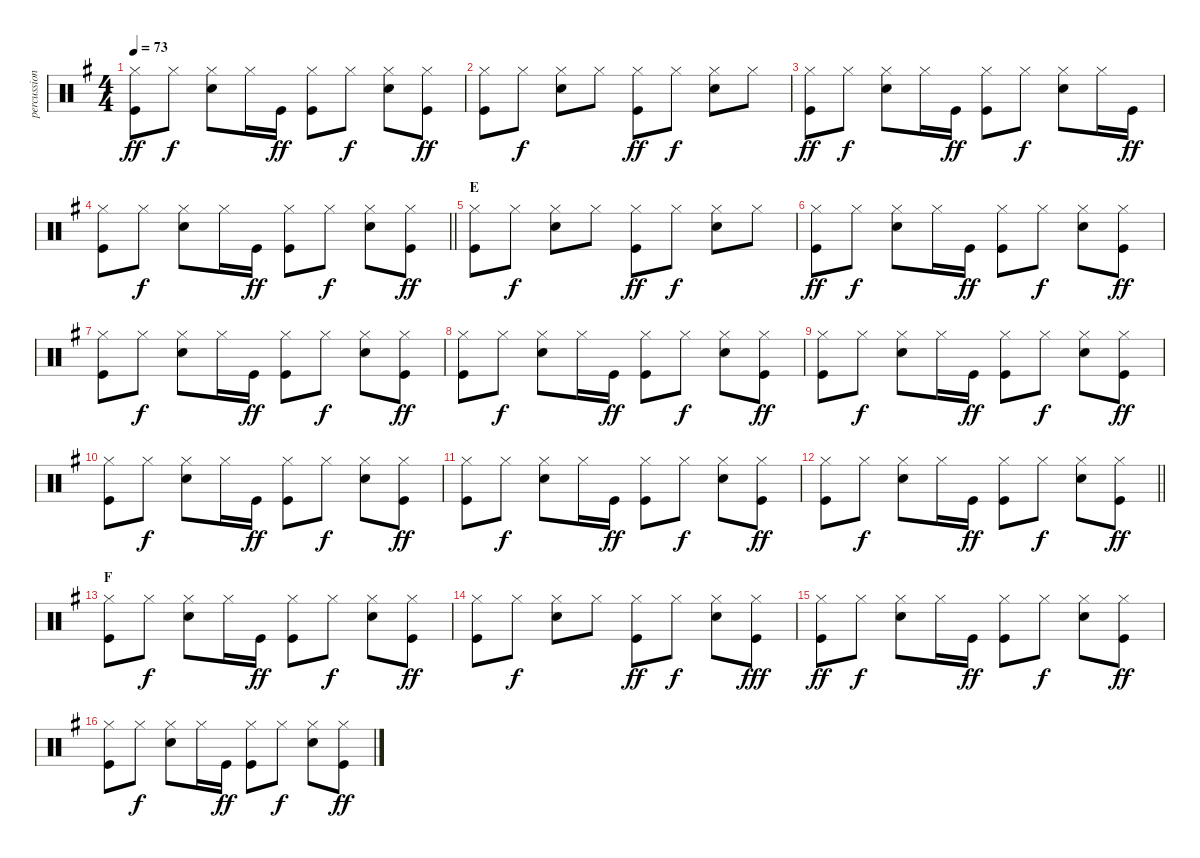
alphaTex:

\track ("percussion" "percussion") {instrument percussion}
\staff {score}
\articulation defaults
\ts (4 4)
\tempo 73
\clef neutral
\ks g
("Hi-Hat (closed)" "Kick (hit)").8{dy ff} "Hi-Hat (closed)".8{dy f} ("Electric Snare (hit)" "Hi-Hat (closed)").8 "Hi-Hat (closed)".16 "Kick (hit)".16{dy ff} ("Hi-Hat (closed)" "Kick (hit)").8 "Hi-Hat (closed)".8{dy f} ("Electric Snare (hit)" "Hi-Hat (closed)").8 ("Hi-Hat (closed)" "Kick (hit)").8{dy ff} |
("Hi-Hat (closed)" "Kick (hit)").8 "Hi-Hat (closed)".8{dy f} ("Electric Snare (hit)" "Hi-Hat (closed)").8 "Hi-Hat (closed)".8 ("Hi-Hat (closed)" "Kick (hit)").8{dy ff} "Hi-Hat (closed)".8{dy f} ("Electric Snare (hit)" "Hi-Hat (closed)").8 "Hi-Hat (closed)".8 |
("Hi-Hat (closed)" "Kick (hit)").8{dy ff} "Hi-Hat (closed)".8{dy f} ("Electric Snare (hit)" "Hi-Hat (closed)").8 "Hi-Hat (closed)".16 "Kick (hit)".16{dy ff} ("Hi-Hat (closed)" "Kick (hit)").8 "Hi-Hat (closed)".8{dy f} ("Electric Snare (hit)" "Hi-Hat (closed)").8 "Hi-Hat (closed)".16 "Kick (hit)".16{dy ff} |
\barLineRight lightlight
("Hi-Hat (closed)" "Kick (hit)").8 "Hi-Hat (closed)".8{dy f} ("Electric Snare (hit)" "Hi-Hat (closed)").8 "Hi-Hat (closed)".16 "Kick (hit)".16{dy ff} ("Hi-Hat (closed)" "Kick (hit)").8 "Hi-Hat (closed)".8{dy f} ("Electric Snare (hit)" "Hi-Hat (closed)").8 ("Hi-Hat (closed)" "Kick (hit)").8{dy ff} |
\section ("" "E")
("Hi-Hat (closed)" "Kick (hit)").8 "Hi-Hat (closed)".8{dy f} ("Electric Snare (hit)" "Hi-Hat (closed)").8 "Hi-Hat (closed)".8 ("Hi-Hat (closed)" "Kick (hit)").8{dy ff} "Hi-Hat (closed)".8{dy f} ("Electric Snare (hit)" "Hi-Hat (closed)").8 "Hi-Hat (closed)".8 |
("Hi-Hat (closed)" "Kick (hit)").8{dy ff} "Hi-Hat (closed)".8{dy f} ("Electric Snare (hit)" "Hi-Hat (closed)").8 "Hi-Hat (closed)".16 "Kick (hit)".16{dy ff} ("Hi-Hat (closed)" "Kick (hit)").8 "Hi-Hat (closed)".8{dy f} ("Electric Snare (hit)" "Hi-Hat (closed)").8 ("Hi-Hat (closed)" "Kick (hit)").8{dy ff} |
("Hi-Hat (closed)" "Kick (hit)").8 "Hi-Hat (closed)".8{dy f} ("Electric Snare (hit)" "Hi-Hat (closed)").8 "Hi-Hat (closed)".16 "Kick (hit)".16{dy ff} ("Hi-Hat (closed)" "Kick (hit)").8 "Hi-Hat (closed)".8{dy f} ("Electric Snare (hit)" "Hi-Hat (closed)").8 ("Hi-Hat (closed)" "Kick (hit)").8{dy ff} |
("Hi-Hat (closed)" "Kick (hit)").8 "Hi-Hat (closed)".8{dy f} ("Electric Snare (hit)" "Hi-Hat (closed)").8 "Hi-Hat (closed)".16 "Kick (hit)".16{dy ff} ("Hi-Hat (closed)" "Kick (hit)").8 "Hi-Hat (closed)".8{dy f} ("Electric Snare (hit)" "Hi-Hat (closed)").8 ("Hi-Hat (closed)" "Kick (hit)").8{dy ff} |
("Hi-Hat (closed)" "Kick (hit)").8 "Hi-Hat (closed)".8{dy f} ("Electric Snare (hit)" "Hi-Hat (closed)").8 "Hi-Hat (closed)".16 "Kick (hit)".16{dy ff} ("Hi-Hat (closed)" "Kick (hit)").8 "Hi-Hat (closed)".8{dy f} ("Electric Snare (hit)" "Hi-Hat (closed)").8 ("Hi-Hat (closed)" "Kick (hit)").8{dy ff} |
("Hi-Hat (closed)" "Kick (hit)").8 "Hi-Hat (closed)".8{dy f} ("Electric Snare (hit)" "Hi-Hat (closed)").8 "Hi-Hat (closed)".16 "Kick (hit)".16{dy ff} ("Hi-Hat (closed)" "Kick (hit)").8 "Hi-Hat (closed)".8{dy f} ("Electric Snare (hit)" "Hi-Hat (closed)").8 ("Hi-Hat (closed)" "Kick (hit)").8{dy ff} |
("Hi-Hat (closed)" "Kick (hit)").8 "Hi-Hat (closed)".8{dy f} ("Electric Snare (hit)" "Hi-Hat (closed)").8 "Hi-Hat (closed)".16 "Kick (hit)".16{dy ff} ("Hi-Hat (closed)" "Kick (hit)").8 "Hi-Hat (closed)".8{dy f} ("Electric Snare (hit)" "Hi-Hat (closed)").8 ("Hi-Hat (closed)" "Kick (hit)").8{dy ff} |
\barLineRight lightlight
("Hi-Hat (closed)" "Kick (hit)").8 "Hi-Hat (closed)".8{dy f} ("Electric Snare (hit)" "Hi-Hat (closed)").8 "Hi-Hat (closed)".16 "Kick (hit)".16{dy ff} ("Hi-Hat (closed)" "Kick (hit)").8 "Hi-Hat (closed)".8{dy f} ("Electric Snare (hit)" "Hi-Hat (closed)").8 ("Hi-Hat (closed)" "Kick (hit)").8{dy ff} |
\section ("" "F")
("Hi-Hat (closed)" "Kick (hit)").8 "Hi-Hat (closed)".8{dy f} ("Electric Snare (hit)" "Hi-Hat (closed)").8 "Hi-Hat (closed)".16 "Kick (hit)".16{dy ff} ("Hi-Hat (closed)" "Kick (hit)").8 "Hi-Hat (closed)".8{dy f} ("Electric Snare (hit)" "Hi-Hat (closed)").8 ("Hi-Hat (closed)" "Kick (hit)").8{dy ff} |
("Hi-Hat (closed)" "Kick (hit)").8 "Hi-Hat (closed)".8{dy f} ("Electric Snare (hit)" "Hi-Hat (closed)").8 "Hi-Hat (closed)".8 ("Hi-Hat (closed)" "Kick (hit)").8{dy ff} "Hi-Hat (closed)".8{dy f} ("Electric Snare (hit)" "Hi-Hat (closed)").8 ("Hi-Hat (closed)" "Kick (hit)").8{dy fff} |
("Hi-Hat (closed)" "Kick (hit)").8{dy ff} "Hi-Hat (closed)".8{dy f} ("Electric Snare (hit)" "Hi-Hat (closed)").8 "Hi-Hat (closed)".16 "Kick (hit)".16{dy ff} ("Hi-Hat (closed)" "Kick (hit)").8 "Hi-Hat (closed)".8{dy f} ("Electric Snare (hit)" "Hi-Hat (closed)").8 ("Hi-Hat (closed)" "Kick (hit)").8{dy ff} |
("Hi-Hat (closed)" "Kick (hit)").8 "Hi-Hat (closed)".8{dy f} ("Electric Snare (hit)" "Hi-Hat (closed)").8 "Hi-Hat (closed)".16 "Kick (hit)".16{dy ff} ("Hi-Hat (closed)" "Kick (hit)").8 "Hi-Hat (closed)".8{dy f} ("Electric Snare (hit)" "Hi-Hat (closed)").8 ("Hi-Hat (closed)" "Kick (hit)").8{dy ff}
